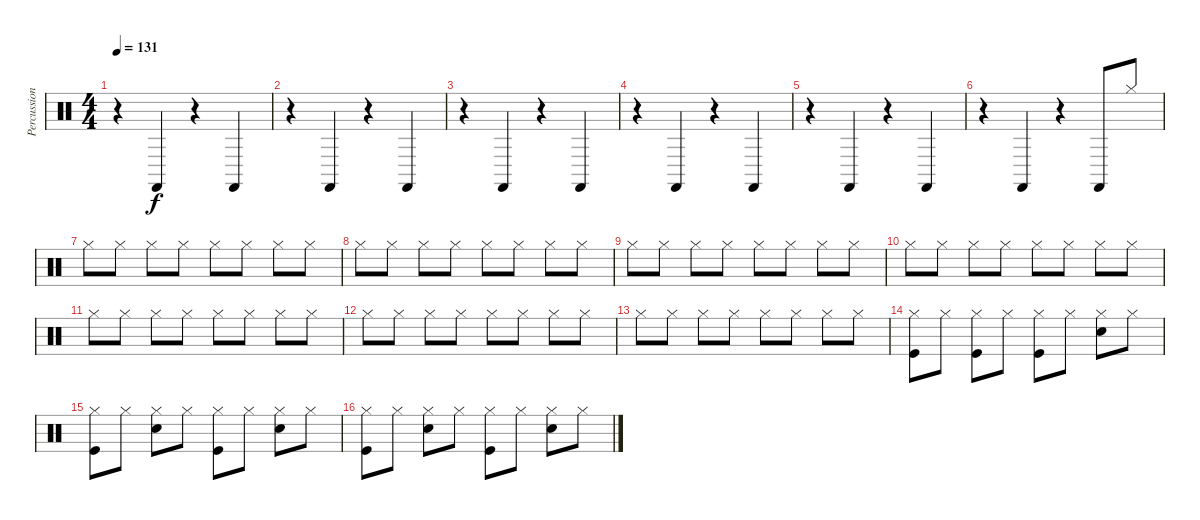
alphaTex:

\track ("Percussion" "Percussion") {instrument percussion}
\staff {score}
\articulation defaults
\ts (4 4)
\tempo 131
\clef neutral
\ks c
r.4{dy f} "Castanets (hit)".4 r.4 "Castanets (hit)".4 |
r.4 "Castanets (hit)".4 r.4 "Castanets (hit)".4 |
r.4 "Castanets (hit)".4 r.4 "Castanets (hit)".4 |
r.4 "Castanets (hit)".4 r.4 "Castanets (hit)".4 |
r.4 "Castanets (hit)".4 r.4 "Castanets (hit)".4 |
r.4 "Castanets (hit)".4 r.4 "Castanets (hit)".8 "Hi-Hat (closed)".8 |
"Hi-Hat (closed)".8 "Hi-Hat (closed)".8 "Hi-Hat (closed)".8 "Hi-Hat (closed)".8 "Hi-Hat (closed)".8 "Hi-Hat (closed)".8 "Hi-Hat (closed)".8 "Hi-Hat (closed)".8 |
"Hi-Hat (closed)".8 "Hi-Hat (closed)".8 "Hi-Hat (closed)".8 "Hi-Hat (closed)".8 "Hi-Hat (closed)".8 "Hi-Hat (closed)".8 "Hi-Hat (closed)".8 "Hi-Hat (closed)".8 |
"Hi-Hat (closed)".8 "Hi-Hat (closed)".8 "Hi-Hat (closed)".8 "Hi-Hat (closed)".8 "Hi-Hat (closed)".8 "Hi-Hat (closed)".8 "Hi-Hat (closed)".8 "Hi-Hat (closed)".8 |
"Hi-Hat (closed)".8 "Hi-Hat (closed)".8 "Hi-Hat (closed)".8 "Hi-Hat (closed)".8 "Hi-Hat (closed)".8 "Hi-Hat (closed)".8 "Hi-Hat (closed)".8 "Hi-Hat (closed)".8 |
"Hi-Hat (closed)".8 "Hi-Hat (closed)".8 "Hi-Hat (closed)".8 "Hi-Hat (closed)".8 "Hi-Hat (closed)".8 "Hi-Hat (closed)".8 "Hi-Hat (closed)".8 "Hi-Hat (closed)".8 |
"Hi-Hat (closed)".8 "Hi-Hat (closed)".8 "Hi-Hat (closed)".8 "Hi-Hat (closed)".8 "Hi-Hat (closed)".8 "Hi-Hat (closed)".8 "Hi-Hat (closed)".8 "Hi-Hat (closed)".8 |
"Hi-Hat (closed)".8 "Hi-Hat (closed)".8 "Hi-Hat (closed)".8 "Hi-Hat (closed)".8 "Hi-Hat (closed)".8 "Hi-Hat (closed)".8 "Hi-Hat (closed)".8 "Hi-Hat (closed)".8 |
("Hi-Hat (closed)" "Kick (hit)").8 "Hi-Hat (closed)".8 ("Hi-Hat (closed)" "Kick (hit)").8 "Hi-Hat (closed)".8 ("Hi-Hat (closed)" "Kick (hit)").8 "Hi-Hat (closed)".8 ("Hi-Hat (closed)" "Snare (hit) 2").8 "Hi-Hat (closed)".8 |
("Hi-Hat (closed)" "Kick (hit)").8 "Hi-Hat (closed)".8 ("Hi-Hat (closed)" "Snare (hit) 2").8 "Hi-Hat (closed)".8 ("Hi-Hat (closed)" "Kick (hit)").8 "Hi-Hat (closed)".8 ("Hi-Hat (closed)" "Snare (hit) 2").8 "Hi-Hat (closed)".8 |
("Hi-Hat (closed)" "Kick (hit)").8 "Hi-Hat (closed)".8 ("Hi-Hat (closed)" "Snare (hit) 2").8 "Hi-Hat (closed)".8 ("Hi-Hat (closed)" "Kick (hit)").8 "Hi-Hat (closed)".8 ("Hi-Hat (closed)" "Snare (hit) 2").8 "Hi-Hat (closed)".8
